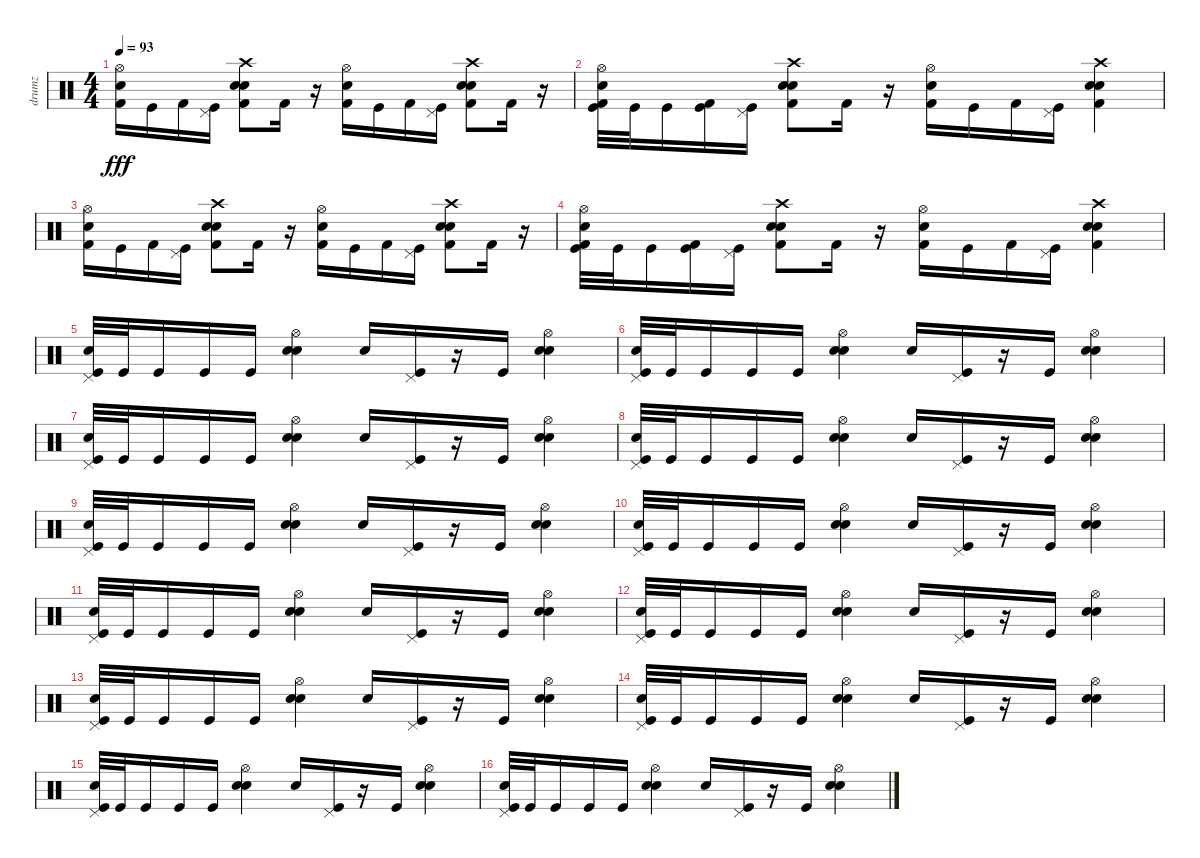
\track ("drumz" "drumz") {instrument percussion}
\staff {score}
\articulation defaults
\ts (4 4)
\tempo 93
\clef neutral
\ks c
("Hi-Hat (open)" "Hand Clap (hit)" "Kick (hit) 2").16{dy fff} "Kick (hit)".16 "Kick (hit) 2".16 ("Kick (hit)" "Pedal Hi-Hat (hit)").16 ("Snare (hit) 2" "Crash high (hit)" "Hand Clap (hit)" "Kick (hit) 2").8 "Kick (hit) 2".16 r.16 ("Hi-Hat (open)" "Hand Clap (hit)" "Kick (hit) 2").16 "Kick (hit)".16 "Kick (hit) 2".16 ("Kick (hit)" "Pedal Hi-Hat (hit)").16 ("Snare (hit) 2" "Crash high (hit)" "Hand Clap (hit)" "Kick (hit) 2").8 "Kick (hit) 2".16 r.16 |
("Kick (hit)" "Hand Clap (hit)" "Hi-Hat (open)" "Kick (hit) 2").32 "Kick (hit)".32 "Kick (hit)".16 ("Kick (hit)" "Kick (hit) 2").16 ("Kick (hit)" "Pedal Hi-Hat (hit)").16 ("Snare (hit) 2" "Hand Clap (hit)" "Crash high (hit)" "Kick (hit) 2").8 "Kick (hit) 2".16 r.16 ("Hand Clap (hit)" "Hi-Hat (open)" "Kick (hit) 2").16 "Kick (hit)".16 "Kick (hit) 2".16 ("Kick (hit)" "Pedal Hi-Hat (hit)").16 ("Snare (hit) 2" "Hand Clap (hit)" "Crash high (hit)" "Kick (hit) 2").4 |
("Hi-Hat (open)" "Hand Clap (hit)" "Kick (hit) 2").16 "Kick (hit)".16 "Kick (hit) 2".16 ("Kick (hit)" "Pedal Hi-Hat (hit)").16 ("Snare (hit) 2" "Crash high (hit)" "Hand Clap (hit)" "Kick (hit) 2").8 "Kick (hit) 2".16 r.16 ("Hi-Hat (open)" "Hand Clap (hit)" "Kick (hit) 2").16 "Kick (hit)".16 "Kick (hit) 2".16 ("Kick (hit)" "Pedal Hi-Hat (hit)").16 ("Snare (hit) 2" "Crash high (hit)" "Hand Clap (hit)" "Kick (hit) 2").8 "Kick (hit) 2".16 r.16 |
("Kick (hit)" "Hand Clap (hit)" "Hi-Hat (open)" "Kick (hit) 2").32 "Kick (hit)".32 "Kick (hit)".16 ("Kick (hit)" "Kick (hit) 2").16 ("Kick (hit)" "Pedal Hi-Hat (hit)").16 ("Snare (hit) 2" "Hand Clap (hit)" "Crash high (hit)" "Kick (hit) 2").8 "Kick (hit) 2".16 r.16 ("Hand Clap (hit)" "Hi-Hat (open)" "Kick (hit) 2").16 "Kick (hit)".16 "Kick (hit) 2".16 ("Kick (hit)" "Pedal Hi-Hat (hit)").16 ("Snare (hit) 2" "Hand Clap (hit)" "Crash high (hit)" "Kick (hit) 2").4 |
("Kick (hit)" "Pedal Hi-Hat (hit)" "Hand Clap (hit)").32 "Kick (hit)".32 "Kick (hit)".16 "Kick (hit)".16 "Kick (hit)".16 ("Snare (hit) 2" "Hi-Hat (open)" "Hand Clap (hit)").4 "Hand Clap (hit)".16 ("Kick (hit)" "Pedal Hi-Hat (hit)").16 r.16 "Kick (hit)".16 ("Snare (hit) 2" "Hi-Hat (open)" "Hand Clap (hit)").4 |
("Kick (hit)" "Pedal Hi-Hat (hit)" "Hand Clap (hit)").32 "Kick (hit)".32 "Kick (hit)".16 "Kick (hit)".16 "Kick (hit)".16 ("Snare (hit) 2" "Hi-Hat (open)" "Hand Clap (hit)").4 "Hand Clap (hit)".16 ("Kick (hit)" "Pedal Hi-Hat (hit)").16 r.16 "Kick (hit)".16 ("Snare (hit) 2" "Hi-Hat (open)" "Hand Clap (hit)").4 |
("Kick (hit)" "Pedal Hi-Hat (hit)" "Hand Clap (hit)").32 "Kick (hit)".32 "Kick (hit)".16 "Kick (hit)".16 "Kick (hit)".16 ("Snare (hit) 2" "Hi-Hat (open)" "Hand Clap (hit)").4 "Hand Clap (hit)".16 ("Kick (hit)" "Pedal Hi-Hat (hit)").16 r.16 "Kick (hit)".16 ("Snare (hit) 2" "Hi-Hat (open)" "Hand Clap (hit)").4 |
("Kick (hit)" "Pedal Hi-Hat (hit)" "Hand Clap (hit)").32 "Kick (hit)".32 "Kick (hit)".16 "Kick (hit)".16 "Kick (hit)".16 ("Snare (hit) 2" "Hi-Hat (open)" "Hand Clap (hit)").4 "Hand Clap (hit)".16 ("Kick (hit)" "Pedal Hi-Hat (hit)").16 r.16 "Kick (hit)".16 ("Snare (hit) 2" "Hi-Hat (open)" "Hand Clap (hit)").4 |
("Kick (hit)" "Pedal Hi-Hat (hit)" "Hand Clap (hit)").32 "Kick (hit)".32 "Kick (hit)".16 "Kick (hit)".16 "Kick (hit)".16 ("Snare (hit) 2" "Hi-Hat (open)" "Hand Clap (hit)").4 "Hand Clap (hit)".16 ("Kick (hit)" "Pedal Hi-Hat (hit)").16 r.16 "Kick (hit)".16 ("Snare (hit) 2" "Hi-Hat (open)" "Hand Clap (hit)").4 |
("Kick (hit)" "Pedal Hi-Hat (hit)" "Hand Clap (hit)").32 "Kick (hit)".32 "Kick (hit)".16 "Kick (hit)".16 "Kick (hit)".16 ("Snare (hit) 2" "Hi-Hat (open)" "Hand Clap (hit)").4 "Hand Clap (hit)".16 ("Kick (hit)" "Pedal Hi-Hat (hit)").16 r.16 "Kick (hit)".16 ("Snare (hit) 2" "Hi-Hat (open)" "Hand Clap (hit)").4 |
("Kick (hit)" "Pedal Hi-Hat (hit)" "Hand Clap (hit)").32 "Kick (hit)".32 "Kick (hit)".16 "Kick (hit)".16 "Kick (hit)".16 ("Snare (hit) 2" "Hi-Hat (open)" "Hand Clap (hit)").4 "Hand Clap (hit)".16 ("Kick (hit)" "Pedal Hi-Hat (hit)").16 r.16 "Kick (hit)".16 ("Snare (hit) 2" "Hi-Hat (open)" "Hand Clap (hit)").4 |
("Kick (hit)" "Pedal Hi-Hat (hit)" "Hand Clap (hit)").32 "Kick (hit)".32 "Kick (hit)".16 "Kick (hit)".16 "Kick (hit)".16 ("Snare (hit) 2" "Hi-Hat (open)" "Hand Clap (hit)").4 "Hand Clap (hit)".16 ("Kick (hit)" "Pedal Hi-Hat (hit)").16 r.16 "Kick (hit)".16 ("Snare (hit) 2" "Hi-Hat (open)" "Hand Clap (hit)").4 |
("Kick (hit)" "Pedal Hi-Hat (hit)" "Hand Clap (hit)").32 "Kick (hit)".32 "Kick (hit)".16 "Kick (hit)".16 "Kick (hit)".16 ("Snare (hit) 2" "Hi-Hat (open)" "Hand Clap (hit)").4 "Hand Clap (hit)".16 ("Kick (hit)" "Pedal Hi-Hat (hit)").16 r.16 "Kick (hit)".16 ("Snare (hit) 2" "Hi-Hat (open)" "Hand Clap (hit)").4 |
("Kick (hit)" "Pedal Hi-Hat (hit)" "Hand Clap (hit)").32 "Kick (hit)".32 "Kick (hit)".16 "Kick (hit)".16 "Kick (hit)".16 ("Snare (hit) 2" "Hi-Hat (open)" "Hand Clap (hit)").4 "Hand Clap (hit)".16 ("Kick (hit)" "Pedal Hi-Hat (hit)").16 r.16 "Kick (hit)".16 ("Snare (hit) 2" "Hi-Hat (open)" "Hand Clap (hit)").4 |
("Kick (hit)" "Pedal Hi-Hat (hit)" "Hand Clap (hit)").32 "Kick (hit)".32 "Kick (hit)".16 "Kick (hit)".16 "Kick (hit)".16 ("Snare (hit) 2" "Hi-Hat (open)" "Hand Clap (hit)").4 "Hand Clap (hit)".16 ("Kick (hit)" "Pedal Hi-Hat (hit)").16 r.16 "Kick (hit)".16 ("Snare (hit) 2" "Hi-Hat (open)" "Hand Clap (hit)").4 |
("Kick (hit)" "Pedal Hi-Hat (hit)" "Hand Clap (hit)").32 "Kick (hit)".32 "Kick (hit)".16 "Kick (hit)".16 "Kick (hit)".16 ("Snare (hit) 2" "Hi-Hat (open)" "Hand Clap (hit)").4 "Hand Clap (hit)".16 ("Kick (hit)" "Pedal Hi-Hat (hit)").16 r.16 "Kick (hit)".16 ("Snare (hit) 2" "Hi-Hat (open)" "Hand Clap (hit)").4
